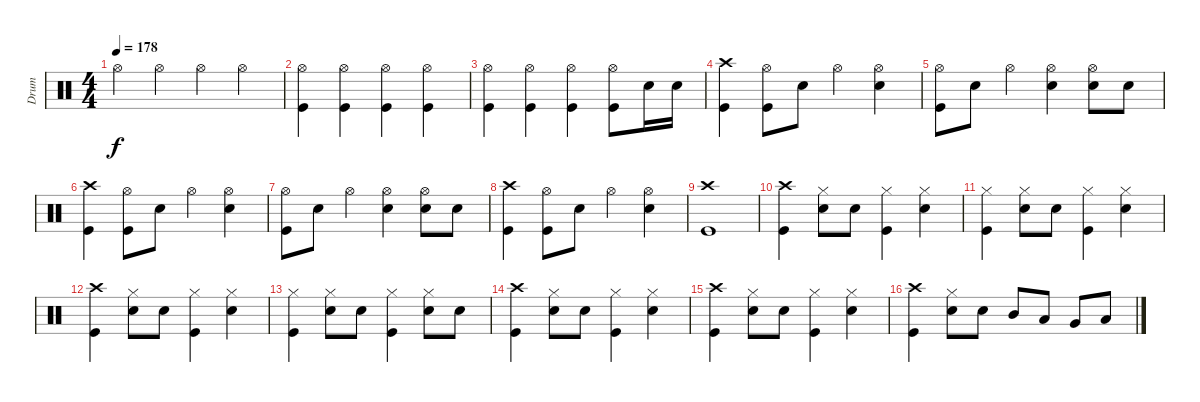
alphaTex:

\track ("Drum" "Drum") {instrument percussion}
\staff {score}
\articulation defaults
\ts (4 4)
\tempo 178
\clef neutral
\ks c "Hi-Hat (open)".4{dy f} "Hi-Hat (open)".4 "Hi-Hat (open)".4 "Hi-Hat (open)".4
|
("Hi-Hat (open)" "Kick (hit)").4 ("Hi-Hat (open)" "Kick (hit)").4 ("Hi-Hat (open)" "Kick (hit)").4 ("Hi-Hat (open)" "Kick (hit)").4 |
("Hi-Hat (open)" "Kick (hit)").4 ("Hi-Hat (open)" "Kick (hit)").4 ("Hi-Hat (open)" "Kick (hit)").4 ("Hi-Hat (open)" "Kick (hit)").8 "Snare (hit) 2".16 "Snare (hit) 2".16 |
("Crash high (hit)" "Kick (hit)").4 ("Hi-Hat (open)" "Kick (hit)").8 "Snare (hit) 2".8 "Hi-Hat (open)".4 ("Hi-Hat (open)" "Snare (hit) 2").4 |
("Hi-Hat (open)" "Kick (hit)").8 "Snare (hit) 2".8 "Hi-Hat (open)".4 ("Hi-Hat (open)" "Snare (hit) 2").4 ("Hi-Hat (open)" "Snare (hit) 2").8 "Snare (hit) 2".8 |
("Crash high (hit)" "Kick (hit)").4 ("Hi-Hat (open)" "Kick (hit)").8 "Snare (hit) 2".8 "Hi-Hat (open)".4 ("Hi-Hat (open)" "Snare (hit) 2").4 |
("Hi-Hat (open)" "Kick (hit)").8 "Snare (hit) 2".8 "Hi-Hat (open)".4 ("Hi-Hat (open)" "Snare (hit) 2").4 ("Hi-Hat (open)" "Snare (hit) 2").8 "Snare (hit) 2".8 |
("Crash high (hit)" "Kick (hit)").4 ("Hi-Hat (open)" "Kick (hit)").8 "Snare (hit) 2".8 "Hi-Hat (open)".4 ("Hi-Hat (open)" "Snare (hit) 2").4 |
("Crash high (hit)" "Kick (hit)").1 |
("Crash high (hit)" "Kick (hit)").4 ("Hi-Hat (closed)" "Snare (hit) 2").8 "Snare (hit) 2".8 ("Hi-Hat (closed)" "Kick (hit)").4 ("Hi-Hat (closed)" "Snare (hit) 2").4 |
("Hi-Hat (closed)" "Kick (hit)").4 ("Hi-Hat (closed)" "Snare (hit) 2").8 "Snare (hit) 2".8 ("Hi-Hat (closed)" "Kick (hit)").4 ("Hi-Hat (closed)" "Snare (hit) 2").4 |
("Crash high (hit)" "Kick (hit)").4 ("Hi-Hat (closed)" "Snare (hit) 2").8 "Snare (hit) 2".8 ("Hi-Hat (closed)" "Kick (hit)").4 ("Hi-Hat (closed)" "Snare (hit) 2").4 |
("Hi-Hat (closed)" "Kick (hit)").4 ("Hi-Hat (closed)" "Snare (hit) 2").8 "Snare (hit) 2".8 ("Hi-Hat (closed)" "Kick (hit)").4 ("Hi-Hat (closed)" "Snare (hit) 2").8 "Snare (hit) 2".8 |
("Crash high (hit)" "Kick (hit)").4 ("Hi-Hat (closed)" "Snare (hit) 2").8 "Snare (hit) 2".8 ("Hi-Hat (closed)" "Kick (hit)").4 ("Hi-Hat (closed)" "Snare (hit) 2").4 |
("Crash high (hit)" "Kick (hit)").4 ("Hi-Hat (closed)" "Snare (hit) 2").8 "Snare (hit) 2".8 ("Hi-Hat (closed)" "Kick (hit)").4 ("Hi-Hat (closed)" "Snare (hit) 2").4 |
("Crash high (hit)" "Kick (hit)").4 ("Hi-Hat (closed)" "Snare (hit) 2").8 "Snare (hit) 2".8 "Mid Tom (hit)".8 "Low Tom (hit)".8 "Very Low Tom (hit)".8 "Low Floor Tom (hit)".8
